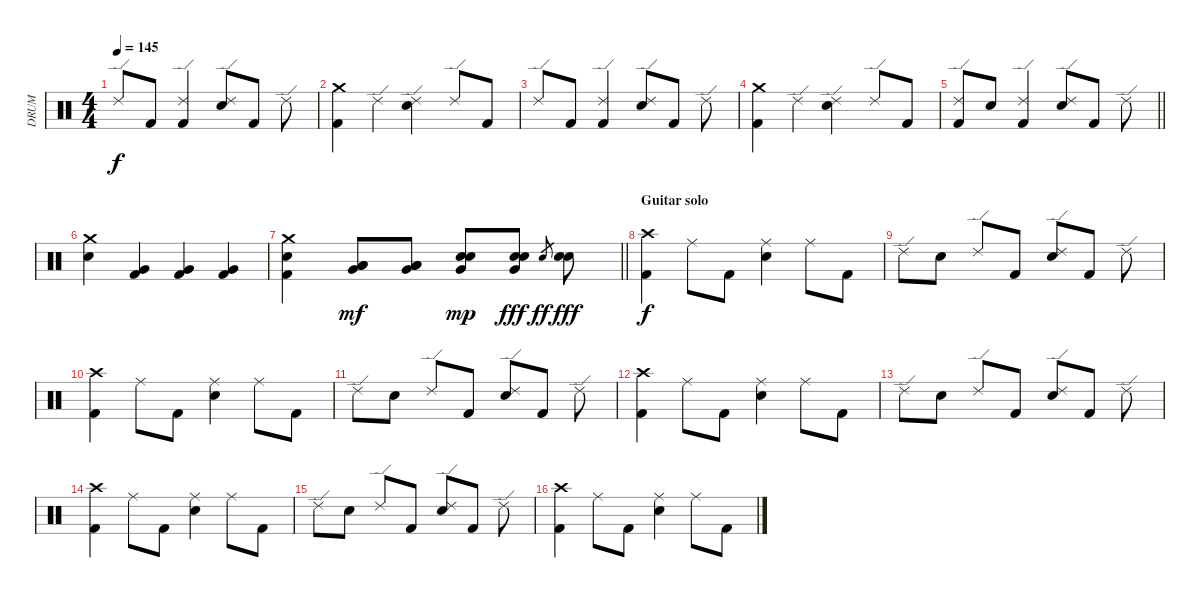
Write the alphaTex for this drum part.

\track ("DRUM" "DRUM") {instrument percussion}
\staff {score}
\articulation defaults
\ts (4 4)
\tempo 145
\clef neutral
\ks c "Ride (edge) 2".8{dy f} "Kick (hit) 2".8
("Ride (edge) 2" "Kick (hit) 2").4 ("Ride (edge) 2" "Electric Snare (hit)").8 "Kick (hit) 2".8 "Ride (edge) 2".8 |
("Crash medium (hit)" "Kick (hit) 2").4 "Ride (edge) 2".4 ("Ride (edge) 2" "Electric Snare (hit)").4 "Ride (edge) 2".8 "Kick (hit) 2".8 |
"Ride (edge) 2".8 "Kick (hit) 2".8 ("Ride (edge) 2" "Kick (hit) 2").4 ("Ride (edge) 2" "Electric Snare (hit)").8 "Kick (hit) 2".8 "Ride (edge) 2".8 |
("Crash medium (hit)" "Kick (hit) 2").4 "Ride (edge) 2".4 ("Ride (edge) 2" "Electric Snare (hit)").4 "Ride (edge) 2".8 "Kick (hit) 2".8 |
\barLineRight lightlight
("Ride (edge) 2" "Kick (hit) 2").8 "Electric Snare (hit)".8 ("Ride (edge) 2" "Kick (hit) 2").4 ("Ride (edge) 2" "Electric Snare (hit)").8 "Kick (hit) 2".8 "Ride (edge) 2".8 |
("Crash medium (hit)" "Electric Snare (hit)").4 ("Very Low Tom (hit)" "Kick (hit) 2").4 ("Very Low Tom (hit)" "Kick (hit) 2").4 ("Very Low Tom (hit)" "Kick (hit) 2").4 |
\barLineRight lightlight
("Crash medium (hit)" "Kick (hit) 2" "Electric Snare (hit)").4 ("Very Low Tom (hit)" "Low Tom (hit)" "Low Tom (hit)").8{dy mf} ("Very Low Tom (hit)" "Low Tom (hit)" "Low Tom (hit)").8 ("Very Low Tom (hit)" "Electric Snare (hit)" "Electric Snare (hit)").8{dy mp} ("Very Low Tom (hit)" "Electric Snare (hit)" "Electric Snare (hit)").8{dy fff} "Electric Snare (hit)".8{gr dy ff} ("Electric Snare (hit)" "Electric Snare (hit)").8{dy fff} |
\section ("" "Guitar solo")
("Crash high (hit)" "Kick (hit) 2").4{dy f} "Ride (middle)".8 "Kick (hit) 2".8 ("Ride (middle)" "Electric Snare (hit)").4 "Ride (middle)".8 "Kick (hit) 2".8 |
"Ride (edge) 2".8 "Electric Snare (hit)".8 "Ride (edge) 2".8 "Kick (hit) 2".8 ("Ride (edge) 2" "Electric Snare (hit)").8 "Kick (hit) 2".8 "Ride (edge) 2".8 |
("Crash high (hit)" "Kick (hit) 2").4 "Ride (middle)".8 "Kick (hit) 2".8 ("Ride (middle)" "Electric Snare (hit)").4 "Ride (middle)".8 "Kick (hit) 2".8 |
"Ride (edge) 2".8 "Electric Snare (hit)".8 "Ride (edge) 2".8 "Kick (hit) 2".8 ("Ride (edge) 2" "Electric Snare (hit)").8 "Kick (hit) 2".8 "Ride (edge) 2".8 |
("Crash high (hit)" "Kick (hit) 2").4 "Ride (middle)".8 "Kick (hit) 2".8 ("Ride (middle)" "Electric Snare (hit)").4 "Ride (middle)".8 "Kick (hit) 2".8 |
"Ride (edge) 2".8 "Electric Snare (hit)".8 "Ride (edge) 2".8 "Kick (hit) 2".8 ("Ride (edge) 2" "Electric Snare (hit)").8 "Kick (hit) 2".8 "Ride (edge) 2".8 |
("Crash high (hit)" "Kick (hit) 2").4 "Ride (middle)".8 "Kick (hit) 2".8 ("Ride (middle)" "Electric Snare (hit)").4 "Ride (middle)".8 "Kick (hit) 2".8 |
"Ride (edge) 2".8 "Electric Snare (hit)".8 "Ride (edge) 2".8 "Kick (hit) 2".8 ("Ride (edge) 2" "Electric Snare (hit)").8 "Kick (hit) 2".8 "Ride (edge) 2".8 |
("Crash high (hit)" "Kick (hit) 2").4 "Ride (middle)".8 "Kick (hit) 2".8 ("Ride (middle)" "Electric Snare (hit)").4 "Ride (middle)".8 "Kick (hit) 2".8
